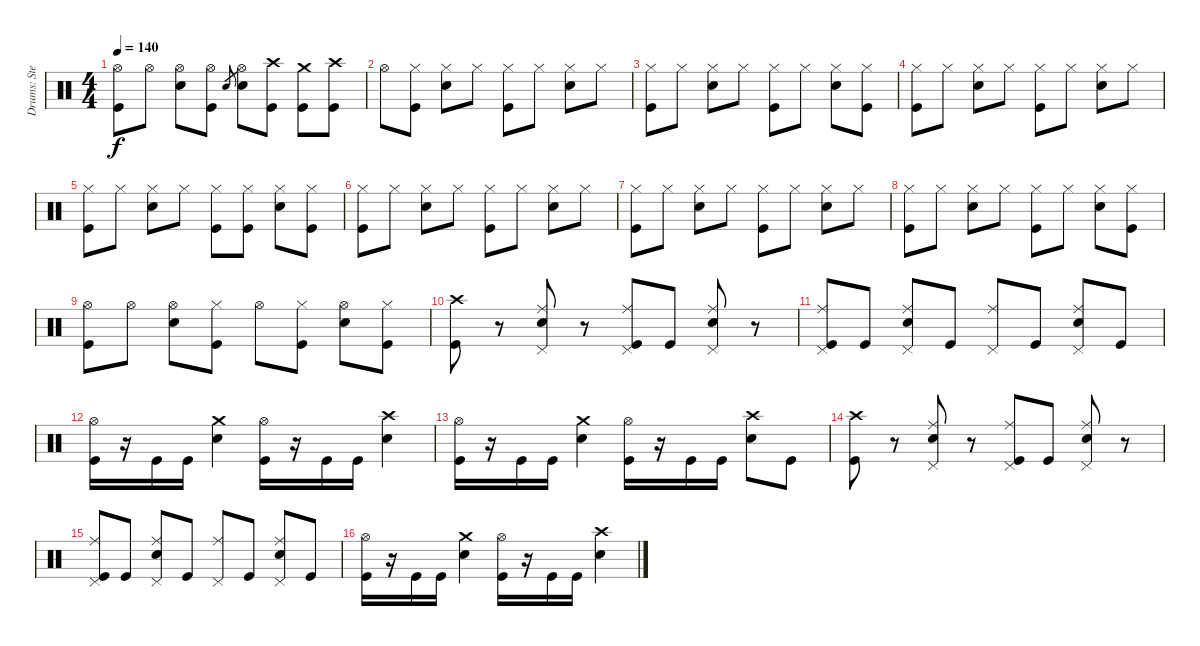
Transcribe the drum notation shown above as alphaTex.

\track ("Drums: Steven Adler" "Drums: Ste") {instrument percussion}
\staff {score}
\articulation defaults
\ts (4 4)
\tempo 140
\clef neutral
\ks c
("Hi-Hat (open)" "Kick (hit)").8{dy f} "Hi-Hat (open)".8 ("Hi-Hat (open)" "Electric Snare (hit)").8 ("Hi-Hat (open)" "Kick (hit)").8 "Electric Snare (hit)".8{gr} ("Hi-Hat (open)" "Electric Snare (hit)").8 ("Crash high (hit)" "Kick (hit)").8 ("Crash medium (hit)" "Kick (hit)").8 ("Crash high (hit)" "Kick (hit)").8 |
"Hi-Hat (open)".8 ("Hi-Hat (closed)" "Kick (hit)").8 ("Hi-Hat (closed)" "Electric Snare (hit)").8 "Hi-Hat (closed)".8 ("Hi-Hat (closed)" "Kick (hit)").8 "Hi-Hat (closed)".8 ("Hi-Hat (closed)" "Electric Snare (hit)").8 "Hi-Hat (closed)".8 |
("Hi-Hat (closed)" "Kick (hit)").8 "Hi-Hat (closed)".8 ("Hi-Hat (closed)" "Electric Snare (hit)").8 "Hi-Hat (closed)".8 ("Hi-Hat (closed)" "Kick (hit)").8 "Hi-Hat (closed)".8 ("Hi-Hat (closed)" "Electric Snare (hit)").8 ("Hi-Hat (closed)" "Kick (hit)").8 |
("Hi-Hat (closed)" "Kick (hit)").8 "Hi-Hat (closed)".8 ("Hi-Hat (closed)" "Electric Snare (hit)").8 "Hi-Hat (closed)".8 ("Hi-Hat (closed)" "Kick (hit)").8 "Hi-Hat (closed)".8 ("Hi-Hat (closed)" "Electric Snare (hit)").8 "Hi-Hat (closed)".8 |
("Hi-Hat (closed)" "Kick (hit)").8 "Hi-Hat (closed)".8 ("Hi-Hat (closed)" "Electric Snare (hit)").8 "Hi-Hat (closed)".8 ("Hi-Hat (closed)" "Kick (hit)").8 ("Hi-Hat (closed)" "Kick (hit)").8 ("Hi-Hat (closed)" "Electric Snare (hit)").8 ("Hi-Hat (closed)" "Kick (hit)").8 |
("Hi-Hat (closed)" "Kick (hit)").8 "Hi-Hat (closed)".8 ("Hi-Hat (closed)" "Electric Snare (hit)").8 "Hi-Hat (closed)".8 ("Hi-Hat (closed)" "Kick (hit)").8 "Hi-Hat (closed)".8 ("Hi-Hat (closed)" "Electric Snare (hit)").8 "Hi-Hat (closed)".8 |
("Hi-Hat (closed)" "Kick (hit)").8 "Hi-Hat (closed)".8 ("Hi-Hat (closed)" "Electric Snare (hit)").8 "Hi-Hat (closed)".8 ("Hi-Hat (closed)" "Kick (hit)").8 "Hi-Hat (closed)".8 ("Hi-Hat (closed)" "Electric Snare (hit)").8 "Hi-Hat (closed)".8 |
("Hi-Hat (closed)" "Kick (hit)").8 "Hi-Hat (closed)".8 ("Hi-Hat (closed)" "Electric Snare (hit)").8 "Hi-Hat (closed)".8 ("Hi-Hat (closed)" "Kick (hit)").8 "Hi-Hat (closed)".8 ("Hi-Hat (closed)" "Electric Snare (hit)").8 ("Hi-Hat (closed)" "Kick (hit)").8 |
("Hi-Hat (open)" "Kick (hit)").8 "Hi-Hat (open)".8 ("Hi-Hat (open)" "Electric Snare (hit)").8 ("Hi-Hat (closed)" "Kick (hit)").8 "Hi-Hat (open)".8 ("Hi-Hat (closed)" "Kick (hit)").8 ("Hi-Hat (open)" "Electric Snare (hit)").8 ("Hi-Hat (closed)" "Kick (hit)").8 |
("Crash high (hit)" "Kick (hit)").8 r.8 ("Ride (middle)" "Pedal Hi-Hat (hit)" "Electric Snare (hit)").8 r.8 ("Ride (middle)" "Pedal Hi-Hat (hit)" "Kick (hit)").8 "Kick (hit)".8 ("Ride (middle)" "Pedal Hi-Hat (hit)" "Electric Snare (hit)").8 r.8 |
("Ride (middle)" "Pedal Hi-Hat (hit)" "Kick (hit)").8 "Kick (hit)".8 ("Ride (middle)" "Pedal Hi-Hat (hit)" "Electric Snare (hit)").8 "Kick (hit)".8 ("Ride (middle)" "Pedal Hi-Hat (hit)").8 "Kick (hit)".8 ("Ride (middle)" "Pedal Hi-Hat (hit)" "Electric Snare (hit)").8 "Kick (hit)".8 |
("Hi-Hat (open)" "Kick (hit)").16 r.16 "Kick (hit)".16 "Kick (hit)".16 ("Crash medium (hit)" "Electric Snare (hit)").4 ("Hi-Hat (open)" "Kick (hit)").16 r.16 "Kick (hit)".16 "Kick (hit)".16 ("Crash high (hit)" "Electric Snare (hit)").4 |
("Hi-Hat (open)" "Kick (hit)").16 r.16 "Kick (hit)".16 "Kick (hit)".16 ("Crash medium (hit)" "Electric Snare (hit)").4 ("Hi-Hat (open)" "Kick (hit)").16 r.16 "Kick (hit)".16 "Kick (hit)".16 ("Crash high (hit)" "Electric Snare (hit)").8 "Kick (hit)".8 |
("Crash high (hit)" "Kick (hit)").8 r.8 ("Ride (middle)" "Pedal Hi-Hat (hit)" "Electric Snare (hit)").8 r.8 ("Ride (middle)" "Pedal Hi-Hat (hit)" "Kick (hit)").8 "Kick (hit)".8 ("Ride (middle)" "Pedal Hi-Hat (hit)" "Electric Snare (hit)").8 r.8 |
("Ride (middle)" "Pedal Hi-Hat (hit)" "Kick (hit)").8 "Kick (hit)".8 ("Ride (middle)" "Pedal Hi-Hat (hit)" "Electric Snare (hit)").8 "Kick (hit)".8 ("Ride (middle)" "Pedal Hi-Hat (hit)").8 "Kick (hit)".8 ("Ride (middle)" "Pedal Hi-Hat (hit)" "Electric Snare (hit)").8 "Kick (hit)".8 |
("Hi-Hat (open)" "Kick (hit)").16 r.16 "Kick (hit)".16 "Kick (hit)".16 ("Crash medium (hit)" "Electric Snare (hit)").4 ("Hi-Hat (open)" "Kick (hit)").16 r.16 "Kick (hit)".16 "Kick (hit)".16 ("Crash high (hit)" "Electric Snare (hit)").4
